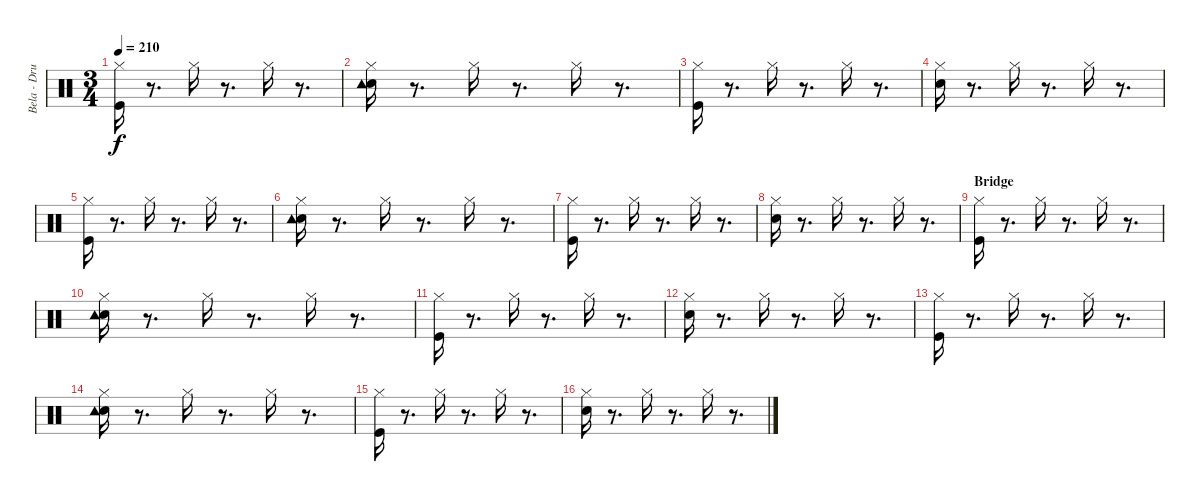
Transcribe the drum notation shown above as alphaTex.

\track ("Bela - Drums" "Bela - Dru") {instrument percussion}
\staff {score}
\articulation defaults
\ts (3 4)
\tempo 210
\clef neutral
\ks c
("Kick (hit)" "Hi-Hat (closed)").16{dy f} r.8{d} "Hi-Hat (closed)".16 r.8{d} "Hi-Hat (closed)".16 r.8{d} |
("Hi-Hat (closed)" "Electric Snare (hit)" "Tambourine (hit)").16 r.8{d} "Hi-Hat (closed)".16 r.8{d} "Hi-Hat (closed)".16 r.8{d} |
("Kick (hit)" "Hi-Hat (closed)").16 r.8{d} "Hi-Hat (closed)".16 r.8{d} "Hi-Hat (closed)".16 r.8{d} |
("Hi-Hat (closed)" "Electric Snare (hit)").16 r.8{d} "Hi-Hat (closed)".16 r.8{d} "Hi-Hat (closed)".16 r.8{d} |
("Kick (hit)" "Hi-Hat (closed)").16 r.8{d} "Hi-Hat (closed)".16 r.8{d} "Hi-Hat (closed)".16 r.8{d} |
("Hi-Hat (closed)" "Electric Snare (hit)" "Tambourine (hit)").16 r.8{d} "Hi-Hat (closed)".16 r.8{d} "Hi-Hat (closed)".16 r.8{d} |
("Kick (hit)" "Hi-Hat (closed)").16 r.8{d} "Hi-Hat (closed)".16 r.8{d} "Hi-Hat (closed)".16 r.8{d} |
("Hi-Hat (closed)" "Electric Snare (hit)").16 r.8{d} "Hi-Hat (closed)".16 r.8{d} "Hi-Hat (closed)".16 r.8{d} |
\section ("" "Bridge")
("Kick (hit)" "Hi-Hat (closed)").16 r.8{d} "Hi-Hat (closed)".16 r.8{d} "Hi-Hat (closed)".16 r.8{d} |
("Hi-Hat (closed)" "Electric Snare (hit)" "Tambourine (hit)").16 r.8{d} "Hi-Hat (closed)".16 r.8{d} "Hi-Hat (closed)".16 r.8{d} |
("Kick (hit)" "Hi-Hat (closed)").16 r.8{d} "Hi-Hat (closed)".16 r.8{d} "Hi-Hat (closed)".16 r.8{d} |
("Hi-Hat (closed)" "Electric Snare (hit)").16 r.8{d} "Hi-Hat (closed)".16 r.8{d} "Hi-Hat (closed)".16 r.8{d} |
("Kick (hit)" "Hi-Hat (closed)").16 r.8{d} "Hi-Hat (closed)".16 r.8{d} "Hi-Hat (closed)".16 r.8{d} |
("Hi-Hat (closed)" "Electric Snare (hit)" "Tambourine (hit)").16 r.8{d} "Hi-Hat (closed)".16 r.8{d} "Hi-Hat (closed)".16 r.8{d} |
("Kick (hit)" "Hi-Hat (closed)").16 r.8{d} "Hi-Hat (closed)".16 r.8{d} "Hi-Hat (closed)".16 r.8{d} |
("Hi-Hat (closed)" "Electric Snare (hit)").16 r.8{d} "Hi-Hat (closed)".16 r.8{d} "Hi-Hat (closed)".16 r.8{d}
